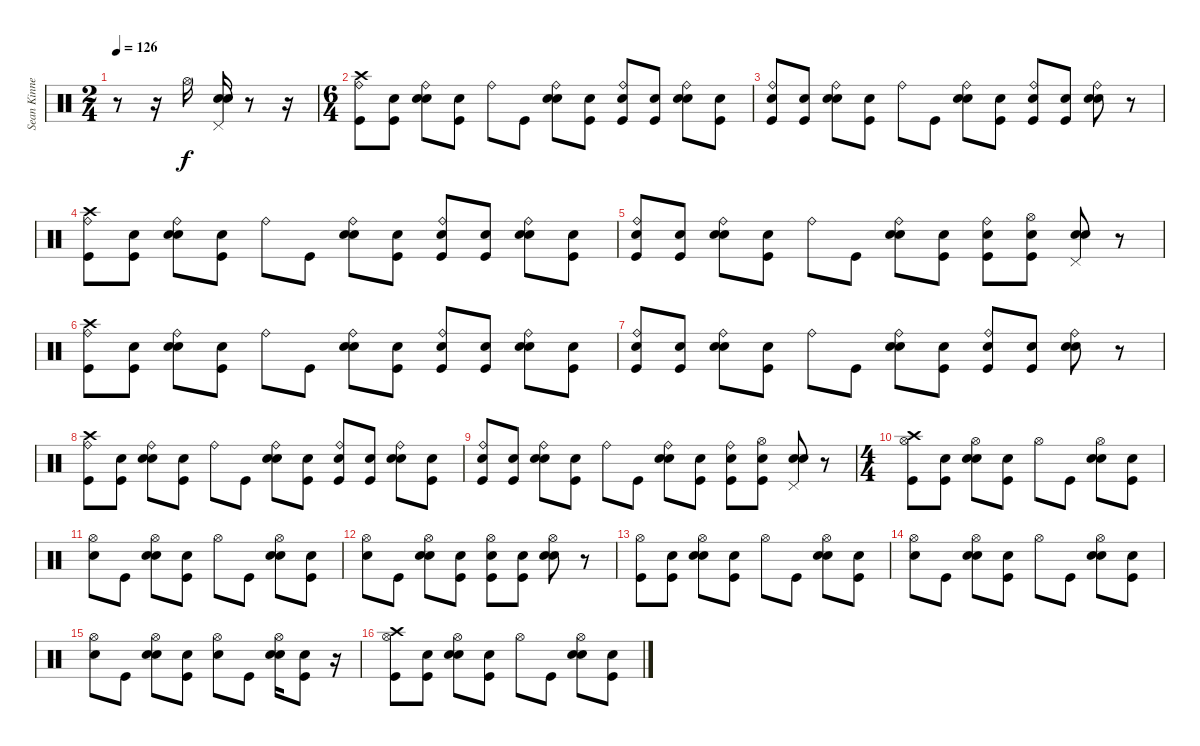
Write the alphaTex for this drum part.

\track ("Sean Kinney (Drums)" "Sean Kinne") {instrument percussion}
\staff {score}
\articulation defaults
\ts (2 4)
\tempo 126
\clef neutral
\ks c
r.8{dy f} r.16 "Hi-Hat (open)".16 ("Snare (hit)" "Electric Snare (hit)" "Pedal Hi-Hat (hit)").16 r.8 r.16 |
\ts (6 4)
("Ride (bell)" "Kick (hit)" "Crash high (hit)").8 ("Snare (hit)" "Kick (hit)").8 ("Snare (hit)" "Ride (bell)" "Electric Snare (hit)").8 ("Snare (hit)" "Kick (hit)").8 "Ride (bell)".8 "Kick (hit)".8 ("Snare (hit)" "Ride (bell)" "Electric Snare (hit)").8 ("Snare (hit)" "Kick (hit)").8 ("Snare (hit)" "Kick (hit)" "Ride (bell)").8 ("Snare (hit)" "Kick (hit)").8 ("Snare (hit)" "Electric Snare (hit)" "Ride (bell)").8 ("Snare (hit)" "Kick (hit)").8 |
("Snare (hit)" "Ride (bell)" "Kick (hit)").8 ("Snare (hit)" "Kick (hit)").8 ("Snare (hit)" "Ride (bell)" "Electric Snare (hit)").8 ("Snare (hit)" "Kick (hit)").8 "Ride (bell)".8 "Kick (hit)".8 ("Snare (hit)" "Electric Snare (hit)" "Ride (bell)").8 ("Snare (hit)" "Kick (hit)").8 ("Snare (hit)" "Kick (hit)" "Ride (bell)").8 ("Snare (hit)" "Kick (hit)").8 ("Snare (hit)" "Electric Snare (hit)" "Ride (bell)").8 r.8 |
("Ride (bell)" "Kick (hit)" "Crash high (hit)").8 ("Snare (hit)" "Kick (hit)").8 ("Snare (hit)" "Ride (bell)" "Electric Snare (hit)").8 ("Snare (hit)" "Kick (hit)").8 "Ride (bell)".8 "Kick (hit)".8 ("Snare (hit)" "Ride (bell)" "Electric Snare (hit)").8 ("Snare (hit)" "Kick (hit)").8 ("Snare (hit)" "Kick (hit)" "Ride (bell)").8 ("Snare (hit)" "Kick (hit)").8 ("Snare (hit)" "Electric Snare (hit)" "Ride (bell)").8 ("Snare (hit)" "Kick (hit)").8 |
("Snare (hit)" "Ride (bell)" "Kick (hit)").8 ("Snare (hit)" "Kick (hit)").8 ("Snare (hit)" "Electric Snare (hit)" "Ride (bell)").8 ("Snare (hit)" "Kick (hit)").8 "Ride (bell)".8 "Kick (hit)".8 ("Snare (hit)" "Electric Snare (hit)" "Ride (bell)").8 ("Snare (hit)" "Kick (hit)").8 ("Snare (hit)" "Ride (bell)" "Kick (hit)").8 ("Snare (hit)" "Kick (hit)" "Hi-Hat (open)").8 ("Snare (hit)" "Electric Snare (hit)" "Pedal Hi-Hat (hit)").8 r.8 |
("Ride (bell)" "Kick (hit)" "Crash high (hit)").8 ("Snare (hit)" "Kick (hit)").8 ("Snare (hit)" "Ride (bell)" "Electric Snare (hit)").8 ("Snare (hit)" "Kick (hit)").8 "Ride (bell)".8 "Kick (hit)".8 ("Snare (hit)" "Ride (bell)" "Electric Snare (hit)").8 ("Snare (hit)" "Kick (hit)").8 ("Snare (hit)" "Kick (hit)" "Ride (bell)").8 ("Snare (hit)" "Kick (hit)").8 ("Snare (hit)" "Ride (bell)" "Electric Snare (hit)").8 ("Snare (hit)" "Kick (hit)").8 |
("Snare (hit)" "Ride (bell)" "Kick (hit)").8 ("Snare (hit)" "Kick (hit)").8 ("Snare (hit)" "Ride (bell)" "Electric Snare (hit)").8 ("Snare (hit)" "Kick (hit)").8 "Ride (bell)".8 "Kick (hit)".8 ("Snare (hit)" "Ride (bell)" "Electric Snare (hit)").8 ("Snare (hit)" "Kick (hit)").8 ("Snare (hit)" "Ride (bell)" "Kick (hit)").8 ("Snare (hit)" "Kick (hit)").8 ("Snare (hit)" "Ride (bell)" "Electric Snare (hit)").8 r.8 |
("Ride (bell)" "Kick (hit)" "Crash high (hit)").8 ("Snare (hit)" "Kick (hit)").8 ("Snare (hit)" "Ride (bell)" "Electric Snare (hit)").8 ("Snare (hit)" "Kick (hit)").8 "Ride (bell)".8 "Kick (hit)".8 ("Snare (hit)" "Ride (bell)" "Electric Snare (hit)").8 ("Snare (hit)" "Kick (hit)").8 ("Snare (hit)" "Ride (bell)" "Kick (hit)").8 ("Snare (hit)" "Kick (hit)").8 ("Snare (hit)" "Electric Snare (hit)" "Ride (bell)").8 ("Snare (hit)" "Kick (hit)").8 |
("Snare (hit)" "Ride (bell)" "Kick (hit)").8 ("Snare (hit)" "Kick (hit)").8 ("Snare (hit)" "Ride (bell)" "Electric Snare (hit)").8 ("Snare (hit)" "Kick (hit)").8 "Ride (bell)".8 "Kick (hit)".8 ("Snare (hit)" "Electric Snare (hit)" "Ride (bell)").8 ("Snare (hit)" "Kick (hit)").8 ("Snare (hit)" "Ride (bell)" "Kick (hit)").8 ("Snare (hit)" "Hi-Hat (open)" "Kick (hit)").8 ("Snare (hit)" "Pedal Hi-Hat (hit)" "Electric Snare (hit)").8 r.8 |
\ts (4 4)
("Kick (hit)" "Hi-Hat (open)" "Crash high (hit)").8 ("Snare (hit)" "Kick (hit)").8 ("Snare (hit)" "Electric Snare (hit)" "Hi-Hat (open)").8 ("Snare (hit)" "Kick (hit)").8 "Hi-Hat (open)".8 "Kick (hit)".8 ("Snare (hit)" "Hi-Hat (open)" "Electric Snare (hit)").8 ("Snare (hit)" "Kick (hit)").8 |
("Snare (hit)" "Hi-Hat (open)").8 "Kick (hit)".8 ("Snare (hit)" "Hi-Hat (open)" "Electric Snare (hit)").8 ("Snare (hit)" "Kick (hit)").8 "Hi-Hat (open)".8 "Kick (hit)".8 ("Snare (hit)" "Hi-Hat (open)" "Electric Snare (hit)").8 ("Snare (hit)" "Kick (hit)").8 |
("Snare (hit)" "Hi-Hat (open)").8 "Kick (hit)".8 ("Snare (hit)" "Electric Snare (hit)" "Hi-Hat (open)").8 ("Snare (hit)" "Kick (hit)").8 ("Snare (hit)" "Kick (hit)" "Hi-Hat (open)").8 ("Snare (hit)" "Kick (hit)").8 ("Snare (hit)" "Electric Snare (hit)" "Hi-Hat (open)").8 r.8 |
("Kick (hit)" "Hi-Hat (open)").8 ("Snare (hit)" "Kick (hit)").8 ("Snare (hit)" "Electric Snare (hit)" "Hi-Hat (open)").8 ("Snare (hit)" "Kick (hit)").8 "Hi-Hat (open)".8 "Kick (hit)".8 ("Snare (hit)" "Electric Snare (hit)" "Hi-Hat (open)").8 ("Snare (hit)" "Kick (hit)").8 |
("Snare (hit)" "Hi-Hat (open)").8 "Kick (hit)".8 ("Snare (hit)" "Electric Snare (hit)" "Hi-Hat (open)").8 ("Snare (hit)" "Kick (hit)").8 "Hi-Hat (open)".8 "Kick (hit)".8 ("Snare (hit)" "Electric Snare (hit)" "Hi-Hat (open)").8 ("Snare (hit)" "Kick (hit)").8 |
("Snare (hit)" "Hi-Hat (open)").8 "Kick (hit)".8 ("Snare (hit)" "Hi-Hat (open)" "Electric Snare (hit)").8 ("Snare (hit)" "Kick (hit)").8 ("Snare (hit)" "Hi-Hat (open)").8 "Kick (hit)".8 ("Snare (hit)" "Hi-Hat (open)" "Electric Snare (hit)").16 ("Snare (hit)" "Kick (hit)").8 r.16 |
("Kick (hit)" "Hi-Hat (open)" "Crash high (hit)").8 ("Snare (hit)" "Kick (hit)").8 ("Snare (hit)" "Electric Snare (hit)" "Hi-Hat (open)").8 ("Snare (hit)" "Kick (hit)").8 "Hi-Hat (open)".8 "Kick (hit)".8 ("Snare (hit)" "Hi-Hat (open)" "Electric Snare (hit)").8 ("Snare (hit)" "Kick (hit)").8
